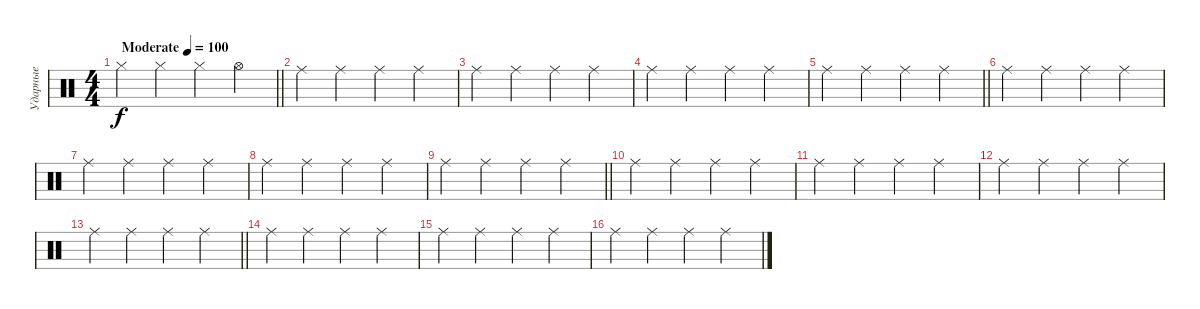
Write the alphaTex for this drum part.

\track ("Ударные" "Ударные") {instrument percussion}
\staff {score}
\articulation defaults
\ts (4 4)
\tempo (100 "Moderate")
\clef neutral
\barLineRight lightlight
\ks c "Hi-Hat (closed)".4{dy f} "Hi-Hat (closed)".4 "Hi-Hat (closed)".4 "Hi-Hat (open)".4
|
"Ride (middle)".4 "Ride (middle)".4 "Ride (middle)".4 "Ride (middle)".4 |
"Ride (middle)".4 "Ride (middle)".4 "Ride (middle)".4 "Ride (middle)".4 |
"Ride (middle)".4 "Ride (middle)".4 "Ride (middle)".4 "Ride (middle)".4 |
\barLineRight lightlight "Ride (middle)".4 "Ride (middle)".4 "Ride (middle)".4 "Ride (middle)".4
|
"Ride (middle)".4 "Ride (middle)".4 "Ride (middle)".4 "Ride (middle)".4 |
"Ride (middle)".4 "Ride (middle)".4 "Ride (middle)".4 "Ride (middle)".4 |
"Ride (middle)".4 "Ride (middle)".4 "Ride (middle)".4 "Ride (middle)".4 |
\barLineRight lightlight "Ride (middle)".4 "Ride (middle)".4 "Ride (middle)".4 "Ride (middle)".4
|
"Ride (middle)".4 "Ride (middle)".4 "Ride (middle)".4 "Ride (middle)".4 |
"Ride (middle)".4 "Ride (middle)".4 "Ride (middle)".4 "Ride (middle)".4 |
"Ride (middle)".4 "Ride (middle)".4 "Ride (middle)".4 "Ride (middle)".4 |
\barLineRight lightlight "Ride (middle)".4 "Ride (middle)".4 "Ride (middle)".4 "Ride (middle)".4
|
"Ride (middle)".4 "Ride (middle)".4 "Ride (middle)".4 "Ride (middle)".4 |
"Ride (middle)".4 "Ride (middle)".4 "Ride (middle)".4 "Ride (middle)".4 |
"Ride (middle)".4 "Ride (middle)".4 "Ride (middle)".4 "Ride (middle)".4
